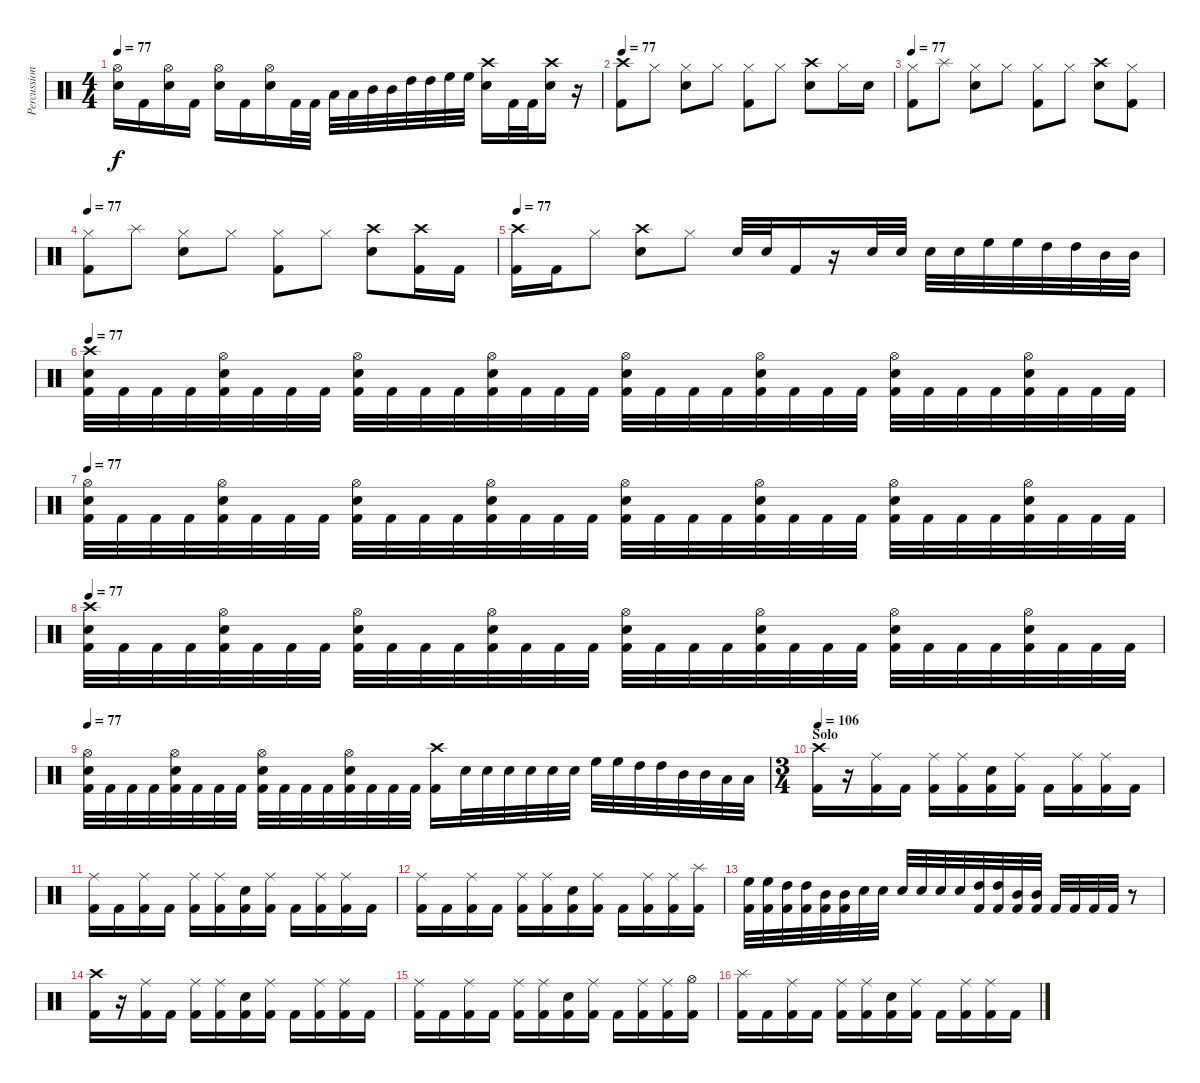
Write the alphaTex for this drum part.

\track ("Percussion" "Percussion") {instrument percussion}
\staff {score}
\articulation defaults
\ts (4 4)
\tempo 77
\clef neutral
\ks c
("Hi-Hat (open)" "Electric Snare (hit)").16{dy f} "Kick (hit) 2".16 ("Hi-Hat (open)" "Electric Snare (hit)").16 "Kick (hit) 2".16 ("Hi-Hat (open)" "Electric Snare (hit)").16 "Kick (hit) 2".16 ("Hi-Hat (open)" "Electric Snare (hit)").16 "Kick (hit) 2".32 "Kick (hit) 2".32 "Low Tom (hit)".32 "Low Tom (hit)".32 "Mid Tom (hit)".32 "Mid Tom (hit)".32 "High Tom (hit)".32 "High Tom (hit)".32 "High Floor Tom (hit)".32 "High Floor Tom (hit)".32 ("Crash high (hit)" "Electric Snare (hit)").16 "Kick (hit) 2".32 "Kick (hit) 2".32 ("Crash high (hit)" "Electric Snare (hit)").16 r.16 |
\tempo 77
("Crash high (hit)" "Kick (hit) 2").8 "Hi-Hat (closed)".8 ("Hi-Hat (closed)" "Electric Snare (hit)").8 "Hi-Hat (closed)".8 ("Hi-Hat (closed)" "Kick (hit) 2").8 "Hi-Hat (closed)".8 ("Crash high (hit)" "Electric Snare (hit)").8 "Hi-Hat (closed)".16 "Electric Snare (hit)".16 |
\tempo 77
("Hi-Hat (closed)" "Kick (hit) 2").8 "Splash (hit)".8 ("Hi-Hat (closed)" "Electric Snare (hit)").8 "Hi-Hat (closed)".8 ("Hi-Hat (closed)" "Kick (hit) 2").8 "Hi-Hat (closed)".8 ("Crash high (hit)" "Electric Snare (hit)").8 ("Hi-Hat (closed)" "Kick (hit) 2").8 |
\tempo 77
("Hi-Hat (closed)" "Kick (hit) 2").8 "Splash (hit)".8 ("Hi-Hat (closed)" "Electric Snare (hit)").8 "Hi-Hat (closed)".8 ("Hi-Hat (closed)" "Kick (hit) 2").8 "Hi-Hat (closed)".8 ("Crash high (hit)" "Electric Snare (hit)").8 ("Crash high (hit)" "Kick (hit) 2").16 "Kick (hit) 2".16 |
\tempo 77
("Crash high (hit)" "Kick (hit) 2").16 "Kick (hit) 2".16 "Hi-Hat (closed)".8 ("Crash high (hit)" "Electric Snare (hit)").8 "Hi-Hat (closed)".8 "Electric Snare (hit)".32 "Electric Snare (hit)".32 "Kick (hit) 2".16 r.16 "Electric Snare (hit)".32 "Electric Snare (hit)".32 "Electric Snare (hit)".32 "Electric Snare (hit)".32 "High Floor Tom (hit)".32 "High Floor Tom (hit)".32 "High Tom (hit)".32 "High Tom (hit)".32 "Mid Tom (hit)".32 "Mid Tom (hit)".32 |
\tempo 77
("Crash high (hit)" "Electric Snare (hit)" "Kick (hit) 2").32 "Kick (hit) 2".32 "Kick (hit) 2".32 "Kick (hit) 2".32 ("Hi-Hat (open)" "Electric Snare (hit)" "Kick (hit) 2").32 "Kick (hit) 2".32 "Kick (hit) 2".32 "Kick (hit) 2".32 ("Hi-Hat (open)" "Electric Snare (hit)" "Kick (hit) 2").32 "Kick (hit) 2".32 "Kick (hit) 2".32 "Kick (hit) 2".32 ("Hi-Hat (open)" "Electric Snare (hit)" "Kick (hit) 2").32 "Kick (hit) 2".32 "Kick (hit) 2".32 "Kick (hit) 2".32 ("Hi-Hat (open)" "Electric Snare (hit)" "Kick (hit) 2").32 "Kick (hit) 2".32 "Kick (hit) 2".32 "Kick (hit) 2".32 ("Hi-Hat (open)" "Electric Snare (hit)" "Kick (hit) 2").32 "Kick (hit) 2".32 "Kick (hit) 2".32 "Kick (hit) 2".32 ("Hi-Hat (open)" "Electric Snare (hit)" "Kick (hit) 2").32 "Kick (hit) 2".32 "Kick (hit) 2".32 "Kick (hit) 2".32 ("Hi-Hat (open)" "Electric Snare (hit)" "Kick (hit) 2").32 "Kick (hit) 2".32 "Kick (hit) 2".32 "Kick (hit) 2".32 |
\tempo 77
("Hi-Hat (open)" "Electric Snare (hit)" "Kick (hit) 2").32 "Kick (hit) 2".32 "Kick (hit) 2".32 "Kick (hit) 2".32 ("Hi-Hat (open)" "Electric Snare (hit)" "Kick (hit) 2").32 "Kick (hit) 2".32 "Kick (hit) 2".32 "Kick (hit) 2".32 ("Hi-Hat (open)" "Electric Snare (hit)" "Kick (hit) 2").32 "Kick (hit) 2".32 "Kick (hit) 2".32 "Kick (hit) 2".32 ("Hi-Hat (open)" "Electric Snare (hit)" "Kick (hit) 2").32 "Kick (hit) 2".32 "Kick (hit) 2".32 "Kick (hit) 2".32 ("Hi-Hat (open)" "Electric Snare (hit)" "Kick (hit) 2").32 "Kick (hit) 2".32 "Kick (hit) 2".32 "Kick (hit) 2".32 ("Hi-Hat (open)" "Electric Snare (hit)" "Kick (hit) 2").32 "Kick (hit) 2".32 "Kick (hit) 2".32 "Kick (hit) 2".32 ("Hi-Hat (open)" "Electric Snare (hit)" "Kick (hit) 2").32 "Kick (hit) 2".32 "Kick (hit) 2".32 "Kick (hit) 2".32 ("Hi-Hat (open)" "Electric Snare (hit)" "Kick (hit) 2").32 "Kick (hit) 2".32 "Kick (hit) 2".32 "Kick (hit) 2".32 |
\tempo 77
("Crash high (hit)" "Electric Snare (hit)" "Kick (hit) 2").32 "Kick (hit) 2".32 "Kick (hit) 2".32 "Kick (hit) 2".32 ("Hi-Hat (open)" "Electric Snare (hit)" "Kick (hit) 2").32 "Kick (hit) 2".32 "Kick (hit) 2".32 "Kick (hit) 2".32 ("Hi-Hat (open)" "Electric Snare (hit)" "Kick (hit) 2").32 "Kick (hit) 2".32 "Kick (hit) 2".32 "Kick (hit) 2".32 ("Hi-Hat (open)" "Electric Snare (hit)" "Kick (hit) 2").32 "Kick (hit) 2".32 "Kick (hit) 2".32 "Kick (hit) 2".32 ("Hi-Hat (open)" "Electric Snare (hit)" "Kick (hit) 2").32 "Kick (hit) 2".32 "Kick (hit) 2".32 "Kick (hit) 2".32 ("Hi-Hat (open)" "Electric Snare (hit)" "Kick (hit) 2").32 "Kick (hit) 2".32 "Kick (hit) 2".32 "Kick (hit) 2".32 ("Hi-Hat (open)" "Electric Snare (hit)" "Kick (hit) 2").32 "Kick (hit) 2".32 "Kick (hit) 2".32 "Kick (hit) 2".32 ("Hi-Hat (open)" "Electric Snare (hit)" "Kick (hit) 2").32 "Kick (hit) 2".32 "Kick (hit) 2".32 "Kick (hit) 2".32 |
\tempo 77
("Hi-Hat (open)" "Electric Snare (hit)" "Kick (hit) 2").32 "Kick (hit) 2".32 "Kick (hit) 2".32 "Kick (hit) 2".32 ("Hi-Hat (open)" "Electric Snare (hit)" "Kick (hit) 2").32 "Kick (hit) 2".32 "Kick (hit) 2".32 "Kick (hit) 2".32 ("Hi-Hat (open)" "Electric Snare (hit)" "Kick (hit) 2").32 "Kick (hit) 2".32 "Kick (hit) 2".32 "Kick (hit) 2".32 ("Hi-Hat (open)" "Electric Snare (hit)" "Kick (hit) 2").32 "Kick (hit) 2".32 "Kick (hit) 2".32 "Kick (hit) 2".32 ("Crash high (hit)" "Kick (hit) 2").16 "Electric Snare (hit)".32 "Electric Snare (hit)".32 "Electric Snare (hit)".32 "Electric Snare (hit)".32 "Electric Snare (hit)".32 "Electric Snare (hit)".32 "High Floor Tom (hit)".32 "High Floor Tom (hit)".32 "High Tom (hit)".32 "High Tom (hit)".32 "Mid Tom (hit)".32 "Mid Tom (hit)".32 "Low Tom (hit)".32 "Low Tom (hit)".32 |
\ts (3 4)
\section ("" "Solo")
\tempo 106
("Crash high (hit)" "Kick (hit) 2").16 r.16 ("Ride (middle)" "Kick (hit) 2").16 "Kick (hit) 2".16 ("Ride (middle)" "Kick (hit) 2").16 ("Ride (middle)" "Kick (hit) 2").16 ("Electric Snare (hit)" "Kick (hit) 2").16 ("Ride (middle)" "Kick (hit) 2").16 "Kick (hit) 2".16 ("Ride (middle)" "Kick (hit) 2").16 ("Ride (middle)" "Kick (hit) 2").16 "Kick (hit) 2".16 |
("Ride (middle)" "Kick (hit) 2").16 "Kick (hit) 2".16 ("Ride (middle)" "Kick (hit) 2").16 "Kick (hit) 2".16 ("Ride (middle)" "Kick (hit) 2").16 ("Ride (middle)" "Kick (hit) 2").16 ("Electric Snare (hit)" "Kick (hit) 2").16 ("Ride (middle)" "Kick (hit) 2").16 "Kick (hit) 2".16 ("Ride (middle)" "Kick (hit) 2").16 ("Ride (middle)" "Kick (hit) 2").16 "Kick (hit) 2".16 |
("Ride (middle)" "Kick (hit) 2").16 "Kick (hit) 2".16 ("Ride (middle)" "Kick (hit) 2").16 "Kick (hit) 2".16 ("Ride (middle)" "Kick (hit) 2").16 ("Ride (middle)" "Kick (hit) 2").16 ("Electric Snare (hit)" "Kick (hit) 2").16 ("Ride (middle)" "Kick (hit) 2").16 "Kick (hit) 2".16 ("Ride (middle)" "Kick (hit) 2").16 ("Ride (middle)" "Kick (hit) 2").16 ("Splash (hit)" "Kick (hit) 2").16 |
("High Floor Tom (hit)" "Kick (hit) 2").32 ("High Floor Tom (hit)" "Kick (hit) 2").32 ("High Tom (hit)" "Kick (hit) 2").32 ("High Tom (hit)" "Kick (hit) 2").32 ("Mid Tom (hit)" "Kick (hit) 2").32 ("Mid Tom (hit)" "Kick (hit) 2").32 "Electric Snare (hit)".32 "Electric Snare (hit)".32 "Electric Snare (hit)".32 "Electric Snare (hit)".32 "Electric Snare (hit)".32 "Electric Snare (hit)".32 ("High Tom (hit)" "Kick (hit) 2").32 ("High Tom (hit)" "Kick (hit) 2").32 ("Mid Tom (hit)" "Kick (hit) 2").32 ("Mid Tom (hit)" "Kick (hit) 2").32 "Kick (hit) 2".32 "Kick (hit) 2".32 "Kick (hit) 2".32 "Kick (hit) 2".32 r.8 |
("Crash high (hit)" "Kick (hit) 2").16 r.16 ("Ride (middle)" "Kick (hit) 2").16 "Kick (hit) 2".16 ("Ride (middle)" "Kick (hit) 2").16 ("Ride (middle)" "Kick (hit) 2").16 ("Electric Snare (hit)" "Kick (hit) 2").16 ("Ride (middle)" "Kick (hit) 2").16 "Kick (hit) 2".16 ("Ride (middle)" "Kick (hit) 2").16 ("Ride (middle)" "Kick (hit) 2").16 "Kick (hit) 2".16 |
("Ride (middle)" "Kick (hit) 2").16 "Kick (hit) 2".16 ("Ride (middle)" "Kick (hit) 2").16 "Kick (hit) 2".16 ("Ride (middle)" "Kick (hit) 2").16 ("Ride (middle)" "Kick (hit) 2").16 ("Electric Snare (hit)" "Kick (hit) 2").16 ("Ride (middle)" "Kick (hit) 2").16 "Kick (hit) 2".16 ("Ride (middle)" "Kick (hit) 2").16 ("Ride (middle)" "Kick (hit) 2").16 ("Hi-Hat (open)" "Kick (hit) 2").16 |
("Splash (hit)" "Kick (hit) 2").16 "Kick (hit) 2".16 ("Ride (middle)" "Kick (hit) 2").16 "Kick (hit) 2".16 ("Ride (middle)" "Kick (hit) 2").16 ("Ride (middle)" "Kick (hit) 2").16 ("Electric Snare (hit)" "Kick (hit) 2").16 ("Ride (middle)" "Kick (hit) 2").16 "Kick (hit) 2".16 ("Ride (middle)" "Kick (hit) 2").16 ("Ride (middle)" "Kick (hit) 2").16 "Kick (hit) 2".16
